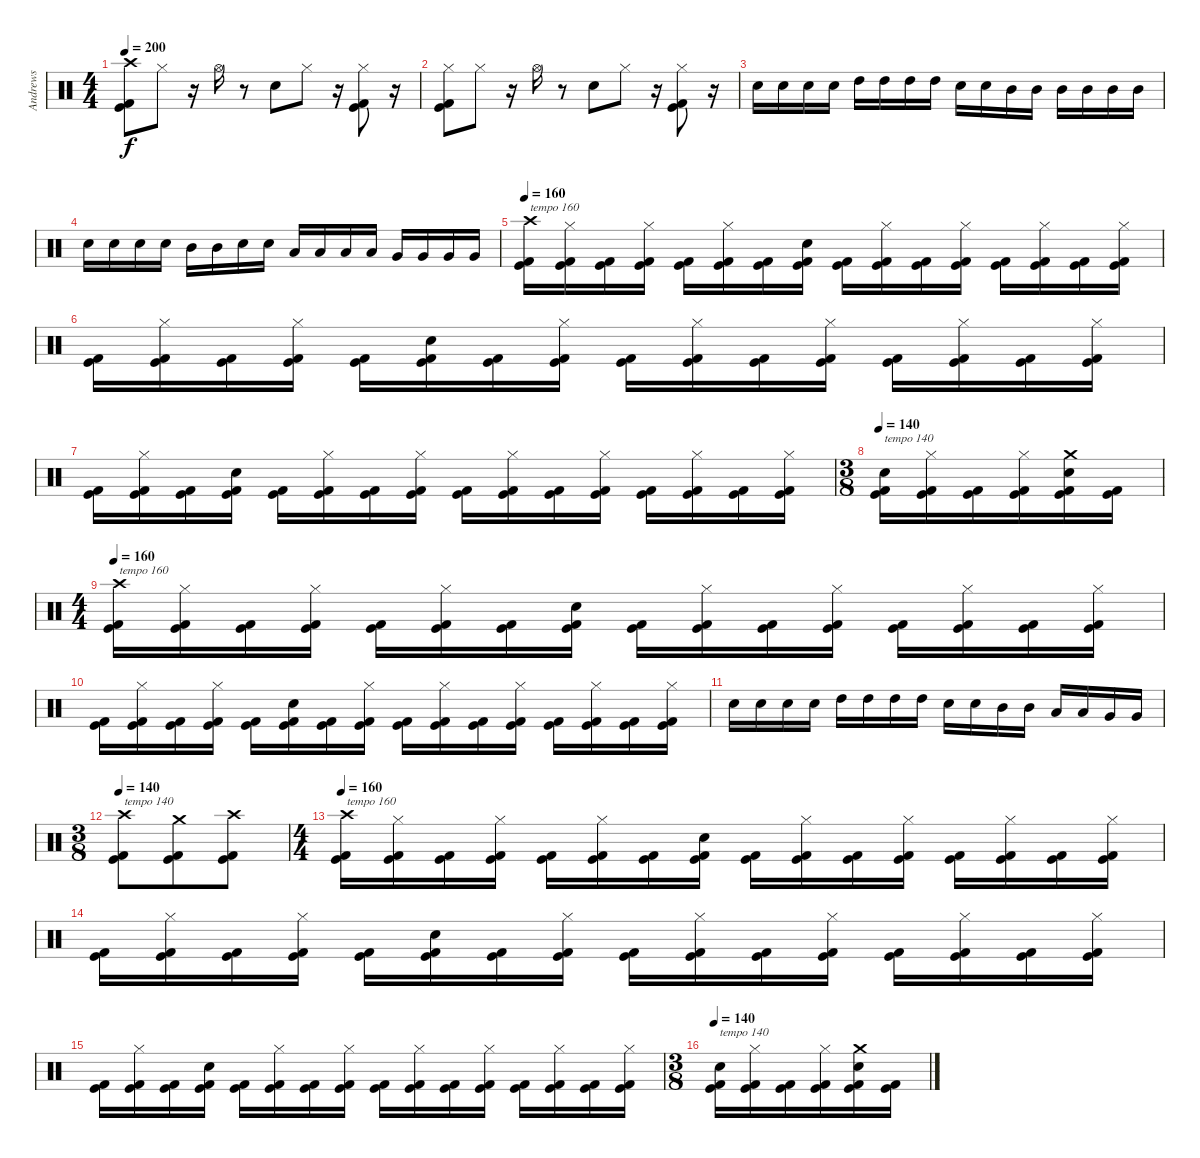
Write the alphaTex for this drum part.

\track ("Andrews" "Andrews") {instrument percussion}
\staff {score}
\articulation defaults
\ts (4 4)
\tempo 200
\clef neutral
\ks c
("Crash high (hit)" "Kick (hit) 2" "Kick (hit)").8{dy f} "Hi-Hat (closed)".8 r.16 "Hi-Hat (open)".16 r.8 "Electric Snare (hit)".8 "Hi-Hat (closed)".8 r.16 ("Hi-Hat (closed)" "Kick (hit) 2" "Kick (hit)").8 r.16 |
("Hi-Hat (closed)" "Kick (hit) 2" "Kick (hit)").8 "Hi-Hat (closed)".8 r.16 "Hi-Hat (open)".16 r.8 "Electric Snare (hit)".8 "Hi-Hat (closed)".8 r.16 ("Hi-Hat (closed)" "Kick (hit) 2" "Kick (hit)").8 r.16 |
"Electric Snare (hit)".16 "Electric Snare (hit)".16 "Electric Snare (hit)".16 "Electric Snare (hit)".16 "High Tom (hit)".16 "High Tom (hit)".16 "High Tom (hit)".16 "High Tom (hit)".16 "Electric Snare (hit)".16 "Electric Snare (hit)".16 "Mid Tom (hit)".16 "Mid Tom (hit)".16 "Mid Tom (hit)".16 "Mid Tom (hit)".16 "Mid Tom (hit)".16 "Mid Tom (hit)".16 |
"Electric Snare (hit)".16 "Electric Snare (hit)".16 "Electric Snare (hit)".16 "Electric Snare (hit)".16 "Mid Tom (hit)".16 "Mid Tom (hit)".16 "Electric Snare (hit)".16 "Electric Snare (hit)".16 "Low Tom (hit)".16 "Low Tom (hit)".16 "Low Tom (hit)".16 "Low Tom (hit)".16 "Very Low Tom (hit)".16 "Very Low Tom (hit)".16 "Very Low Tom (hit)".16 "Very Low Tom (hit)".16 |
\tempo 160
("Crash high (hit)" "Kick (hit) 2" "Kick (hit)").16{txt "tempo 160"} ("Hi-Hat (closed)" "Kick (hit) 2" "Kick (hit)").16 ("Kick (hit) 2" "Kick (hit)").16 ("Hi-Hat (closed)" "Kick (hit) 2" "Kick (hit)").16 ("Kick (hit) 2" "Kick (hit)").16 ("Hi-Hat (closed)" "Kick (hit) 2" "Kick (hit)").16 ("Kick (hit) 2" "Kick (hit)").16 ("Electric Snare (hit)" "Kick (hit) 2" "Kick (hit)").16 ("Kick (hit) 2" "Kick (hit)").16 ("Hi-Hat (closed)" "Kick (hit) 2" "Kick (hit)").16 ("Kick (hit) 2" "Kick (hit)").16 ("Hi-Hat (closed)" "Kick (hit) 2" "Kick (hit)").16 ("Kick (hit) 2" "Kick (hit)").16 ("Hi-Hat (closed)" "Kick (hit) 2" "Kick (hit)").16 ("Kick (hit) 2" "Kick (hit)").16 ("Hi-Hat (closed)" "Kick (hit) 2" "Kick (hit)").16 |
("Kick (hit) 2" "Kick (hit)").16 ("Hi-Hat (closed)" "Kick (hit) 2" "Kick (hit)").16 ("Kick (hit) 2" "Kick (hit)").16 ("Hi-Hat (closed)" "Kick (hit) 2" "Kick (hit)").16 ("Kick (hit) 2" "Kick (hit)").16 ("Electric Snare (hit)" "Kick (hit) 2" "Kick (hit)").16 ("Kick (hit) 2" "Kick (hit)").16 ("Hi-Hat (closed)" "Kick (hit) 2" "Kick (hit)").16 ("Kick (hit) 2" "Kick (hit)").16 ("Hi-Hat (closed)" "Kick (hit) 2" "Kick (hit)").16 ("Kick (hit) 2" "Kick (hit)").16 ("Hi-Hat (closed)" "Kick (hit) 2" "Kick (hit)").16 ("Kick (hit) 2" "Kick (hit)").16 ("Hi-Hat (closed)" "Kick (hit) 2" "Kick (hit)").16 ("Kick (hit) 2" "Kick (hit)").16 ("Hi-Hat (closed)" "Kick (hit) 2" "Kick (hit)").16 |
("Kick (hit) 2" "Kick (hit)").16 ("Hi-Hat (closed)" "Kick (hit) 2" "Kick (hit)").16 ("Kick (hit) 2" "Kick (hit)").16 ("Electric Snare (hit)" "Kick (hit) 2" "Kick (hit)").16 ("Kick (hit) 2" "Kick (hit)").16 ("Hi-Hat (closed)" "Kick (hit) 2" "Kick (hit)").16 ("Kick (hit) 2" "Kick (hit)").16 ("Hi-Hat (closed)" "Kick (hit) 2" "Kick (hit)").16 ("Kick (hit) 2" "Kick (hit)").16 ("Hi-Hat (closed)" "Kick (hit) 2" "Kick (hit)").16 ("Kick (hit) 2" "Kick (hit)").16 ("Hi-Hat (closed)" "Kick (hit) 2" "Kick (hit)").16 ("Kick (hit) 2" "Kick (hit)").16 ("Hi-Hat (closed)" "Kick (hit) 2" "Kick (hit)").16 ("Kick (hit) 2" "Kick (hit)").16 ("Hi-Hat (closed)" "Kick (hit) 2" "Kick (hit)").16 |
\ts (3 8)
\tempo 140
("Electric Snare (hit)" "Kick (hit) 2" "Kick (hit)").16{txt "tempo 140"} ("Hi-Hat (closed)" "Kick (hit) 2" "Kick (hit)").16 ("Kick (hit) 2" "Kick (hit)").16 ("Hi-Hat (closed)" "Kick (hit) 2" "Kick (hit)").16 ("Crash medium (hit)" "Electric Snare (hit)" "Kick (hit) 2" "Kick (hit)").16 ("Kick (hit) 2" "Kick (hit)").16 |
\ts (4 4)
\tempo 160
("Crash high (hit)" "Kick (hit) 2" "Kick (hit)").16{txt "tempo 160"} ("Hi-Hat (closed)" "Kick (hit) 2" "Kick (hit)").16 ("Kick (hit) 2" "Kick (hit)").16 ("Hi-Hat (closed)" "Kick (hit) 2" "Kick (hit)").16 ("Kick (hit) 2" "Kick (hit)").16 ("Hi-Hat (closed)" "Kick (hit) 2" "Kick (hit)").16 ("Kick (hit) 2" "Kick (hit)").16 ("Electric Snare (hit)" "Kick (hit) 2" "Kick (hit)").16 ("Kick (hit) 2" "Kick (hit)").16 ("Hi-Hat (closed)" "Kick (hit) 2" "Kick (hit)").16 ("Kick (hit) 2" "Kick (hit)").16 ("Hi-Hat (closed)" "Kick (hit) 2" "Kick (hit)").16 ("Kick (hit) 2" "Kick (hit)").16 ("Hi-Hat (closed)" "Kick (hit) 2" "Kick (hit)").16 ("Kick (hit) 2" "Kick (hit)").16 ("Hi-Hat (closed)" "Kick (hit) 2" "Kick (hit)").16 |
("Kick (hit) 2" "Kick (hit)").16 ("Hi-Hat (closed)" "Kick (hit) 2" "Kick (hit)").16 ("Kick (hit) 2" "Kick (hit)").16 ("Hi-Hat (closed)" "Kick (hit) 2" "Kick (hit)").16 ("Kick (hit) 2" "Kick (hit)").16 ("Electric Snare (hit)" "Kick (hit) 2" "Kick (hit)").16 ("Kick (hit) 2" "Kick (hit)").16 ("Hi-Hat (closed)" "Kick (hit) 2" "Kick (hit)").16 ("Kick (hit) 2" "Kick (hit)").16 ("Hi-Hat (closed)" "Kick (hit) 2" "Kick (hit)").16 ("Kick (hit) 2" "Kick (hit)").16 ("Hi-Hat (closed)" "Kick (hit) 2" "Kick (hit)").16 ("Kick (hit) 2" "Kick (hit)").16 ("Hi-Hat (closed)" "Kick (hit) 2" "Kick (hit)").16 ("Kick (hit) 2" "Kick (hit)").16 ("Hi-Hat (closed)" "Kick (hit) 2" "Kick (hit)").16 |
"Electric Snare (hit)".16 "Electric Snare (hit)".16 "Electric Snare (hit)".16 "Electric Snare (hit)".16 "High Tom (hit)".16 "High Tom (hit)".16 "High Tom (hit)".16 "High Tom (hit)".16 "Electric Snare (hit)".16 "Electric Snare (hit)".16 "Mid Tom (hit)".16 "Mid Tom (hit)".16 "Low Tom (hit)".16 "Low Tom (hit)".16 "Very Low Tom (hit)".16 "Very Low Tom (hit)".16 |
\ts (3 8)
\tempo 140
("Crash high (hit)" "Kick (hit) 2" "Kick (hit)").8{txt "tempo 140"} ("Crash medium (hit)" "Kick (hit) 2" "Kick (hit)").8 ("Crash high (hit)" "Kick (hit) 2" "Kick (hit)").8 |
\ts (4 4)
\tempo 160
("Crash high (hit)" "Kick (hit) 2" "Kick (hit)").16{txt "tempo 160"} ("Hi-Hat (closed)" "Kick (hit) 2" "Kick (hit)").16 ("Kick (hit) 2" "Kick (hit)").16 ("Hi-Hat (closed)" "Kick (hit) 2" "Kick (hit)").16 ("Kick (hit) 2" "Kick (hit)").16 ("Hi-Hat (closed)" "Kick (hit) 2" "Kick (hit)").16 ("Kick (hit) 2" "Kick (hit)").16 ("Electric Snare (hit)" "Kick (hit) 2" "Kick (hit)").16 ("Kick (hit) 2" "Kick (hit)").16 ("Hi-Hat (closed)" "Kick (hit) 2" "Kick (hit)").16 ("Kick (hit) 2" "Kick (hit)").16 ("Hi-Hat (closed)" "Kick (hit) 2" "Kick (hit)").16 ("Kick (hit) 2" "Kick (hit)").16 ("Hi-Hat (closed)" "Kick (hit) 2" "Kick (hit)").16 ("Kick (hit) 2" "Kick (hit)").16 ("Hi-Hat (closed)" "Kick (hit) 2" "Kick (hit)").16 |
("Kick (hit) 2" "Kick (hit)").16 ("Hi-Hat (closed)" "Kick (hit) 2" "Kick (hit)").16 ("Kick (hit) 2" "Kick (hit)").16 ("Hi-Hat (closed)" "Kick (hit) 2" "Kick (hit)").16 ("Kick (hit) 2" "Kick (hit)").16 ("Electric Snare (hit)" "Kick (hit) 2" "Kick (hit)").16 ("Kick (hit) 2" "Kick (hit)").16 ("Hi-Hat (closed)" "Kick (hit) 2" "Kick (hit)").16 ("Kick (hit) 2" "Kick (hit)").16 ("Hi-Hat (closed)" "Kick (hit) 2" "Kick (hit)").16 ("Kick (hit) 2" "Kick (hit)").16 ("Hi-Hat (closed)" "Kick (hit) 2" "Kick (hit)").16 ("Kick (hit) 2" "Kick (hit)").16 ("Hi-Hat (closed)" "Kick (hit) 2" "Kick (hit)").16 ("Kick (hit) 2" "Kick (hit)").16 ("Hi-Hat (closed)" "Kick (hit) 2" "Kick (hit)").16 |
("Kick (hit) 2" "Kick (hit)").16 ("Hi-Hat (closed)" "Kick (hit) 2" "Kick (hit)").16 ("Kick (hit) 2" "Kick (hit)").16 ("Electric Snare (hit)" "Kick (hit) 2" "Kick (hit)").16 ("Kick (hit) 2" "Kick (hit)").16 ("Hi-Hat (closed)" "Kick (hit) 2" "Kick (hit)").16 ("Kick (hit) 2" "Kick (hit)").16 ("Hi-Hat (closed)" "Kick (hit) 2" "Kick (hit)").16 ("Kick (hit) 2" "Kick (hit)").16 ("Hi-Hat (closed)" "Kick (hit) 2" "Kick (hit)").16 ("Kick (hit) 2" "Kick (hit)").16 ("Hi-Hat (closed)" "Kick (hit) 2" "Kick (hit)").16 ("Kick (hit) 2" "Kick (hit)").16 ("Hi-Hat (closed)" "Kick (hit) 2" "Kick (hit)").16 ("Kick (hit) 2" "Kick (hit)").16 ("Hi-Hat (closed)" "Kick (hit) 2" "Kick (hit)").16 |
\ts (3 8)
\tempo 140
("Electric Snare (hit)" "Kick (hit) 2" "Kick (hit)").16{txt "tempo 140"} ("Hi-Hat (closed)" "Kick (hit) 2" "Kick (hit)").16 ("Kick (hit) 2" "Kick (hit)").16 ("Hi-Hat (closed)" "Kick (hit) 2" "Kick (hit)").16 ("Crash medium (hit)" "Electric Snare (hit)" "Kick (hit) 2" "Kick (hit)").16 ("Kick (hit) 2" "Kick (hit)").16
